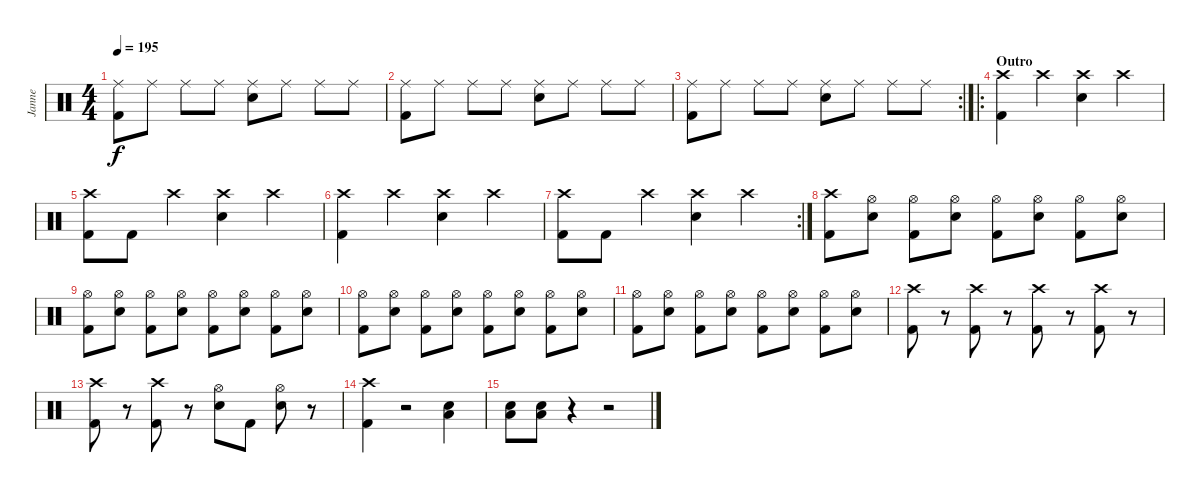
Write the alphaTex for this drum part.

\track ("Janne" "Janne") {instrument percussion}
\staff {score}
\articulation defaults
\ts (4 4)
\tempo 195
\clef neutral
\ks c
("Ride (middle)" "Kick (hit) 2").8{dy f} "Ride (middle)".8 "Ride (middle)".8 "Ride (middle)".8 ("Ride (middle)" "Electric Snare (hit)").8 "Ride (middle)".8 "Ride (middle)".8 "Ride (middle)".8 |
("Ride (middle)" "Kick (hit) 2").8 "Ride (middle)".8 "Ride (middle)".8 "Ride (middle)".8 ("Ride (middle)" "Electric Snare (hit)").8 "Ride (middle)".8 "Ride (middle)".8 "Ride (middle)".8 |
\rc 2
("Ride (middle)" "Kick (hit) 2").8 "Ride (middle)".8 "Ride (middle)".8 "Ride (middle)".8 ("Ride (middle)" "Electric Snare (hit)").8 "Ride (middle)".8 "Ride (middle)".8 "Ride (middle)".8 |
\ro
\section ("" "Outro")
("Crash high (hit)" "Kick (hit) 2").4 "Crash high (hit)".4 ("Crash high (hit)" "Electric Snare (hit)").4 "Crash high (hit)".4 |
("Crash high (hit)" "Kick (hit) 2").8 "Kick (hit) 2".8 "Crash high (hit)".4 ("Crash high (hit)" "Electric Snare (hit)").4 "Crash high (hit)".4 |
("Crash high (hit)" "Kick (hit) 2").4 "Crash high (hit)".4 ("Crash high (hit)" "Electric Snare (hit)").4 "Crash high (hit)".4 |
\rc 2
("Crash high (hit)" "Kick (hit) 2").8 "Kick (hit) 2".8 "Crash high (hit)".4 ("Crash high (hit)" "Electric Snare (hit)").4 "Crash high (hit)".4 |
("Crash high (hit)" "Kick (hit) 2").8 ("Hi-Hat (open)" "Electric Snare (hit)").8 ("Hi-Hat (open)" "Kick (hit) 2").8 ("Hi-Hat (open)" "Electric Snare (hit)").8 ("Hi-Hat (open)" "Kick (hit) 2").8 ("Hi-Hat (open)" "Electric Snare (hit)").8 ("Hi-Hat (open)" "Kick (hit) 2").8 ("Hi-Hat (open)" "Electric Snare (hit)").8 |
("Hi-Hat (open)" "Kick (hit) 2").8 ("Hi-Hat (open)" "Electric Snare (hit)").8 ("Hi-Hat (open)" "Kick (hit) 2").8 ("Hi-Hat (open)" "Electric Snare (hit)").8 ("Hi-Hat (open)" "Kick (hit) 2").8 ("Hi-Hat (open)" "Electric Snare (hit)").8 ("Hi-Hat (open)" "Kick (hit) 2").8 ("Hi-Hat (open)" "Electric Snare (hit)").8 |
("Hi-Hat (open)" "Kick (hit) 2").8 ("Hi-Hat (open)" "Electric Snare (hit)").8 ("Hi-Hat (open)" "Kick (hit) 2").8 ("Hi-Hat (open)" "Electric Snare (hit)").8 ("Hi-Hat (open)" "Kick (hit) 2").8 ("Hi-Hat (open)" "Electric Snare (hit)").8 ("Hi-Hat (open)" "Kick (hit) 2").8 ("Hi-Hat (open)" "Electric Snare (hit)").8 |
("Hi-Hat (open)" "Kick (hit) 2").8 ("Hi-Hat (open)" "Electric Snare (hit)").8 ("Hi-Hat (open)" "Kick (hit) 2").8 ("Hi-Hat (open)" "Electric Snare (hit)").8 ("Hi-Hat (open)" "Kick (hit) 2").8 ("Hi-Hat (open)" "Electric Snare (hit)").8 ("Hi-Hat (open)" "Kick (hit) 2").8 ("Hi-Hat (open)" "Electric Snare (hit)").8 |
("Crash high (hit)" "Kick (hit) 2").8 r.8 ("Crash high (hit)" "Kick (hit) 2").8 r.8 ("Crash high (hit)" "Kick (hit) 2").8 r.8 ("Crash high (hit)" "Kick (hit) 2").8 r.8 |
("Crash high (hit)" "Kick (hit) 2").8 r.8 ("Crash high (hit)" "Kick (hit) 2").8 r.8 ("Hi-Hat (open)" "Electric Snare (hit)").8 "Kick (hit) 2".8 ("Hi-Hat (open)" "Electric Snare (hit)").8 r.8 |
("Crash high (hit)" "Kick (hit) 2").4 r.2 ("Low Floor Tom (hit)" "Electric Snare (hit)").4 |
("Low Floor Tom (hit)" "Electric Snare (hit)").8 ("Low Floor Tom (hit)" "Electric Snare (hit)").8 r.4 r.2
